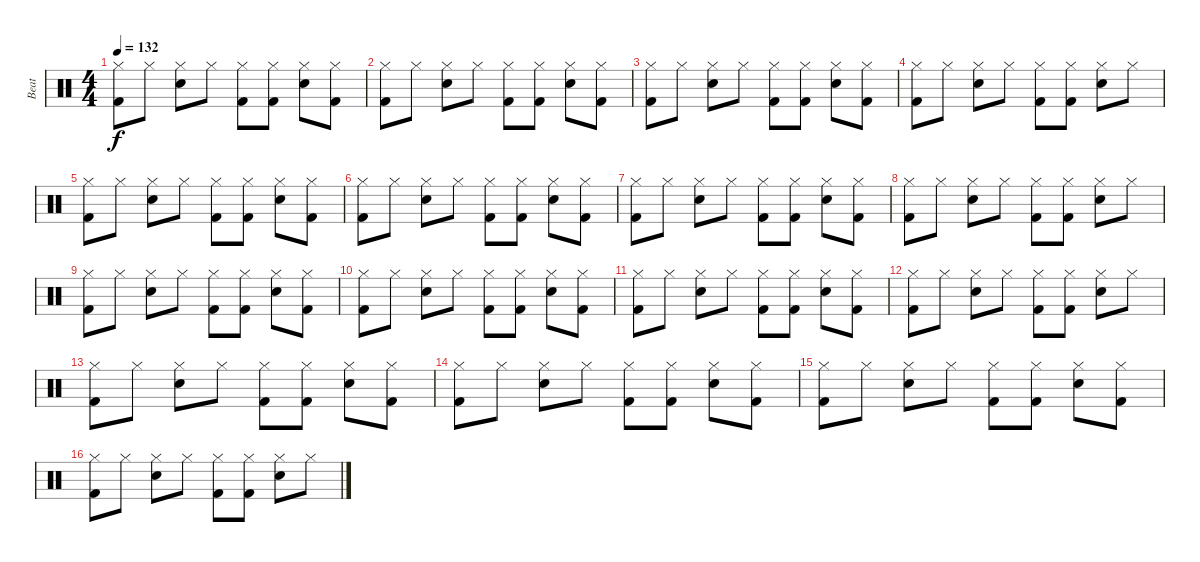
\track ("Beat" "Beat") {instrument percussion}
\staff {score}
\articulation defaults
\ts (4 4)
\tempo 132
\clef neutral
\ks c
("Kick (hit) 2" "Hi-Hat (closed)").8{dy f} "Hi-Hat (closed)".8 ("Electric Snare (hit)" "Hi-Hat (closed)").8 "Hi-Hat (closed)".8 ("Kick (hit) 2" "Hi-Hat (closed)").8 ("Kick (hit) 2" "Hi-Hat (closed)").8 ("Electric Snare (hit)" "Hi-Hat (closed)").8 ("Kick (hit) 2" "Hi-Hat (closed)").8 |
("Kick (hit) 2" "Hi-Hat (closed)").8 "Hi-Hat (closed)".8 ("Electric Snare (hit)" "Hi-Hat (closed)").8 "Hi-Hat (closed)".8 ("Kick (hit) 2" "Hi-Hat (closed)").8 ("Kick (hit) 2" "Hi-Hat (closed)").8 ("Electric Snare (hit)" "Hi-Hat (closed)").8 ("Kick (hit) 2" "Hi-Hat (closed)").8 |
("Kick (hit) 2" "Hi-Hat (closed)").8 "Hi-Hat (closed)".8 ("Electric Snare (hit)" "Hi-Hat (closed)").8 "Hi-Hat (closed)".8 ("Kick (hit) 2" "Hi-Hat (closed)").8 ("Kick (hit) 2" "Hi-Hat (closed)").8 ("Electric Snare (hit)" "Hi-Hat (closed)").8 ("Kick (hit) 2" "Hi-Hat (closed)").8 |
("Kick (hit) 2" "Hi-Hat (closed)").8 "Hi-Hat (closed)".8 ("Electric Snare (hit)" "Hi-Hat (closed)").8 "Hi-Hat (closed)".8 ("Kick (hit) 2" "Hi-Hat (closed)").8 ("Kick (hit) 2" "Hi-Hat (closed)").8 ("Electric Snare (hit)" "Hi-Hat (closed)").8 "Hi-Hat (closed)".8 |
("Kick (hit) 2" "Hi-Hat (closed)").8 "Hi-Hat (closed)".8 ("Electric Snare (hit)" "Hi-Hat (closed)").8 "Hi-Hat (closed)".8 ("Kick (hit) 2" "Hi-Hat (closed)").8 ("Kick (hit) 2" "Hi-Hat (closed)").8 ("Electric Snare (hit)" "Hi-Hat (closed)").8 ("Kick (hit) 2" "Hi-Hat (closed)").8 |
("Kick (hit) 2" "Hi-Hat (closed)").8 "Hi-Hat (closed)".8 ("Electric Snare (hit)" "Hi-Hat (closed)").8 "Hi-Hat (closed)".8 ("Kick (hit) 2" "Hi-Hat (closed)").8 ("Kick (hit) 2" "Hi-Hat (closed)").8 ("Electric Snare (hit)" "Hi-Hat (closed)").8 ("Kick (hit) 2" "Hi-Hat (closed)").8 |
("Kick (hit) 2" "Hi-Hat (closed)").8 "Hi-Hat (closed)".8 ("Electric Snare (hit)" "Hi-Hat (closed)").8 "Hi-Hat (closed)".8 ("Kick (hit) 2" "Hi-Hat (closed)").8 ("Kick (hit) 2" "Hi-Hat (closed)").8 ("Electric Snare (hit)" "Hi-Hat (closed)").8 ("Kick (hit) 2" "Hi-Hat (closed)").8 |
("Kick (hit) 2" "Hi-Hat (closed)").8 "Hi-Hat (closed)".8 ("Electric Snare (hit)" "Hi-Hat (closed)").8 "Hi-Hat (closed)".8 ("Kick (hit) 2" "Hi-Hat (closed)").8 ("Kick (hit) 2" "Hi-Hat (closed)").8 ("Electric Snare (hit)" "Hi-Hat (closed)").8 "Hi-Hat (closed)".8 |
("Kick (hit) 2" "Hi-Hat (closed)").8 "Hi-Hat (closed)".8 ("Electric Snare (hit)" "Hi-Hat (closed)").8 "Hi-Hat (closed)".8 ("Kick (hit) 2" "Hi-Hat (closed)").8 ("Kick (hit) 2" "Hi-Hat (closed)").8 ("Electric Snare (hit)" "Hi-Hat (closed)").8 ("Kick (hit) 2" "Hi-Hat (closed)").8 |
("Kick (hit) 2" "Hi-Hat (closed)").8 "Hi-Hat (closed)".8 ("Electric Snare (hit)" "Hi-Hat (closed)").8 "Hi-Hat (closed)".8 ("Kick (hit) 2" "Hi-Hat (closed)").8 ("Kick (hit) 2" "Hi-Hat (closed)").8 ("Electric Snare (hit)" "Hi-Hat (closed)").8 ("Kick (hit) 2" "Hi-Hat (closed)").8 |
("Kick (hit) 2" "Hi-Hat (closed)").8 "Hi-Hat (closed)".8 ("Electric Snare (hit)" "Hi-Hat (closed)").8 "Hi-Hat (closed)".8 ("Kick (hit) 2" "Hi-Hat (closed)").8 ("Kick (hit) 2" "Hi-Hat (closed)").8 ("Electric Snare (hit)" "Hi-Hat (closed)").8 ("Kick (hit) 2" "Hi-Hat (closed)").8 |
("Kick (hit) 2" "Hi-Hat (closed)").8 "Hi-Hat (closed)".8 ("Electric Snare (hit)" "Hi-Hat (closed)").8 "Hi-Hat (closed)".8 ("Kick (hit) 2" "Hi-Hat (closed)").8 ("Kick (hit) 2" "Hi-Hat (closed)").8 ("Electric Snare (hit)" "Hi-Hat (closed)").8 "Hi-Hat (closed)".8 |
("Kick (hit) 2" "Hi-Hat (closed)").8 "Hi-Hat (closed)".8 ("Electric Snare (hit)" "Hi-Hat (closed)").8 "Hi-Hat (closed)".8 ("Kick (hit) 2" "Hi-Hat (closed)").8 ("Kick (hit) 2" "Hi-Hat (closed)").8 ("Electric Snare (hit)" "Hi-Hat (closed)").8 ("Kick (hit) 2" "Hi-Hat (closed)").8 |
("Kick (hit) 2" "Hi-Hat (closed)").8 "Hi-Hat (closed)".8 ("Electric Snare (hit)" "Hi-Hat (closed)").8 "Hi-Hat (closed)".8 ("Kick (hit) 2" "Hi-Hat (closed)").8 ("Kick (hit) 2" "Hi-Hat (closed)").8 ("Electric Snare (hit)" "Hi-Hat (closed)").8 ("Kick (hit) 2" "Hi-Hat (closed)").8 |
("Kick (hit) 2" "Hi-Hat (closed)").8 "Hi-Hat (closed)".8 ("Electric Snare (hit)" "Hi-Hat (closed)").8 "Hi-Hat (closed)".8 ("Kick (hit) 2" "Hi-Hat (closed)").8 ("Kick (hit) 2" "Hi-Hat (closed)").8 ("Electric Snare (hit)" "Hi-Hat (closed)").8 ("Kick (hit) 2" "Hi-Hat (closed)").8 |
("Kick (hit) 2" "Hi-Hat (closed)").8 "Hi-Hat (closed)".8 ("Electric Snare (hit)" "Hi-Hat (closed)").8 "Hi-Hat (closed)".8 ("Kick (hit) 2" "Hi-Hat (closed)").8 ("Kick (hit) 2" "Hi-Hat (closed)").8 ("Electric Snare (hit)" "Hi-Hat (closed)").8 "Hi-Hat (closed)".8
